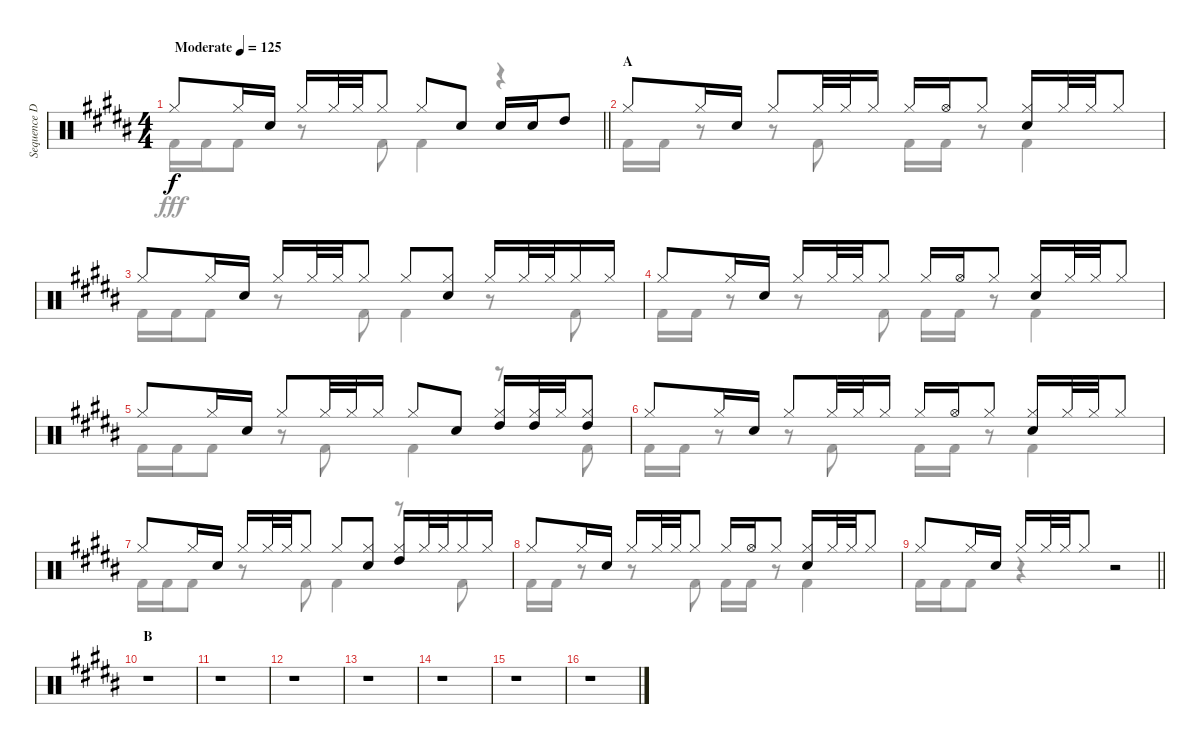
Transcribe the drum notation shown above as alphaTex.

\track ("Sequence Drums" "Sequence D") {instrument percussion}
\staff {score}
\articulation defaults
\voice
\ts (4 4)
\tempo (125 "Moderate")
\clef neutral
\barLineRight lightlight
\ks b "Hi-Hat (closed)".8{dy f} "Hi-Hat (closed)".16 "Snare (hit) 2".16 "Hi-Hat (closed)".16 "Hi-Hat (closed)".32 "Hi-Hat (closed)".32 "Hi-Hat (closed)".8 "Hi-Hat (closed)".8 "Snare (hit) 2".8 "Snare (hit) 2".16 "Snare (hit) 2".16 "High Tom (hit)".8
|
\section ("" "A")
"Hi-Hat (closed)".8 "Hi-Hat (closed)".16 "Snare (hit) 2".16 "Hi-Hat (closed)".8 "Hi-Hat (closed)".32 "Hi-Hat (closed)".32 "Hi-Hat (closed)".16 "Hi-Hat (closed)".16 "Hi-Hat (open)".16 "Hi-Hat (closed)".8 ("Hi-Hat (closed)" "Snare (hit) 2").16 "Hi-Hat (closed)".32 "Hi-Hat (closed)".32 "Hi-Hat (closed)".8 |
"Hi-Hat (closed)".8 "Hi-Hat (closed)".16 "Snare (hit) 2".16 "Hi-Hat (closed)".16 "Hi-Hat (closed)".32 "Hi-Hat (closed)".32 "Hi-Hat (closed)".8 "Hi-Hat (closed)".8 ("Hi-Hat (closed)" "Snare (hit) 2").8 "Hi-Hat (closed)".16 "Hi-Hat (closed)".32 "Hi-Hat (closed)".32 "Hi-Hat (closed)".16 "Hi-Hat (closed)".16 |
"Hi-Hat (closed)".8 "Hi-Hat (closed)".16 "Snare (hit) 2".16 "Hi-Hat (closed)".16 "Hi-Hat (closed)".32 "Hi-Hat (closed)".32 "Hi-Hat (closed)".8 "Hi-Hat (closed)".16 "Hi-Hat (open)".16 "Hi-Hat (closed)".8 ("Hi-Hat (closed)" "Snare (hit) 2").16 "Hi-Hat (closed)".32 "Hi-Hat (closed)".32 "Hi-Hat (closed)".8 |
"Hi-Hat (closed)".8 "Hi-Hat (closed)".16 "Snare (hit) 2".16 "Hi-Hat (closed)".8 "Hi-Hat (closed)".32 "Hi-Hat (closed)".32 "Hi-Hat (closed)".16 "Hi-Hat (closed)".8 "Snare (hit) 2".8 ("Hi-Hat (closed)" "High Tom (hit)").16 ("Hi-Hat (closed)" "High Tom (hit)").32 "Hi-Hat (closed)".32 ("Hi-Hat (closed)" "High Tom (hit)").8 |
"Hi-Hat (closed)".8 "Hi-Hat (closed)".16 "Snare (hit) 2".16 "Hi-Hat (closed)".8 "Hi-Hat (closed)".32 "Hi-Hat (closed)".32 "Hi-Hat (closed)".16 "Hi-Hat (closed)".16 "Hi-Hat (open)".16 "Hi-Hat (closed)".8 ("Hi-Hat (closed)" "Snare (hit) 2").16 "Hi-Hat (closed)".32 "Hi-Hat (closed)".32 "Hi-Hat (closed)".8 |
"Hi-Hat (closed)".8 "Hi-Hat (closed)".16 "Snare (hit) 2".16 "Hi-Hat (closed)".16 "Hi-Hat (closed)".32 "Hi-Hat (closed)".32 "Hi-Hat (closed)".8 "Hi-Hat (closed)".8 ("Hi-Hat (closed)" "Snare (hit) 2").8 ("Hi-Hat (closed)" "High Tom (hit)").16 "Hi-Hat (closed)".32 "Hi-Hat (closed)".32 "Hi-Hat (closed)".16 "Hi-Hat (closed)".16 |
"Hi-Hat (closed)".8 "Hi-Hat (closed)".16 "Snare (hit) 2".16 "Hi-Hat (closed)".16 "Hi-Hat (closed)".32 "Hi-Hat (closed)".32 "Hi-Hat (closed)".8 "Hi-Hat (closed)".16 "Hi-Hat (open)".16 "Hi-Hat (closed)".8 ("Hi-Hat (closed)" "Snare (hit) 2").16 "Hi-Hat (closed)".32 "Hi-Hat (closed)".32 "Hi-Hat (closed)".8 |
\barLineRight lightlight "Hi-Hat (closed)".8 "Hi-Hat (closed)".16 "Snare (hit) 2".16 "Hi-Hat (closed)".16 "Hi-Hat (closed)".32 "Hi-Hat (closed)".32 "Hi-Hat (closed)".8
r.2 |
\section ("" "B")
r.1 |
r.1 |
r.1 |
r.1 |
r.1 |
r.1 |
r.1
\voice
\clef neutral
\ottava regular
\simile none
\barLineRight lightlight
\ks b "Kick (hit) 2".16{dy fff} "Kick (hit) 2".16 "Kick (hit) 2".8
r.8 "Kick (hit) 2".8 "Kick (hit) 2".4 r.4 |
"Kick (hit) 2".16 "Kick (hit) 2".16 r.8 r.8 "Kick (hit) 2".8 "Kick (hit) 2".16 "Kick (hit) 2".16 r.8 "Kick (hit) 2".4 |
"Kick (hit) 2".16 "Kick (hit) 2".16 "Kick (hit) 2".8 r.8 "Kick (hit) 2".8 "Kick (hit) 2".4 r.8 "Kick (hit) 2".8 |
"Kick (hit) 2".16 "Kick (hit) 2".16 r.8 r.8 "Kick (hit) 2".8 "Kick (hit) 2".16 "Kick (hit) 2".16 r.8 "Kick (hit) 2".4 |
"Kick (hit) 2".16 "Kick (hit) 2".16 "Kick (hit) 2".8 r.8 "Kick (hit) 2".8 "Kick (hit) 2".4 r.8 "Kick (hit) 2".8 |
"Kick (hit) 2".16 "Kick (hit) 2".16 r.8 r.8 "Kick (hit) 2".8 "Kick (hit) 2".16 "Kick (hit) 2".16 r.8 "Kick (hit) 2".4 |
"Kick (hit) 2".16 "Kick (hit) 2".16 "Kick (hit) 2".8 r.8 "Kick (hit) 2".8 "Kick (hit) 2".4 r.8 "Kick (hit) 2".8 |
"Kick (hit) 2".16 "Kick (hit) 2".16 r.8 r.8 "Kick (hit) 2".8 "Kick (hit) 2".16 "Kick (hit) 2".16 r.8 "Kick (hit) 2".4 |
\barLineRight lightlight "Kick (hit) 2".16 "Kick (hit) 2".16 "Kick (hit) 2".8
r.4 r.2 |
r.1 |
r.1 |
r.1 |
r.1 |
r.1 |
r.1 |
r.1
